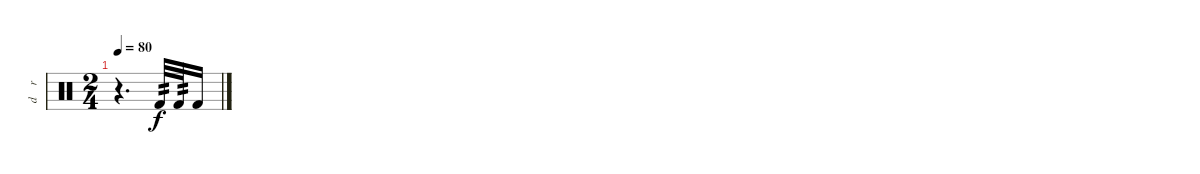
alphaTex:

\track ("d    r    u  m  s" "d    r    ") {instrument percussion}
\staff {score}
\articulation defaults
\ts (2 4)
\tempo 80
\clef neutral
\ks c
r.4{d dy f} "Kick (hit) 2".32{tp 2} "Kick (hit) 2".32{tp 2} "Kick (hit) 2".16
